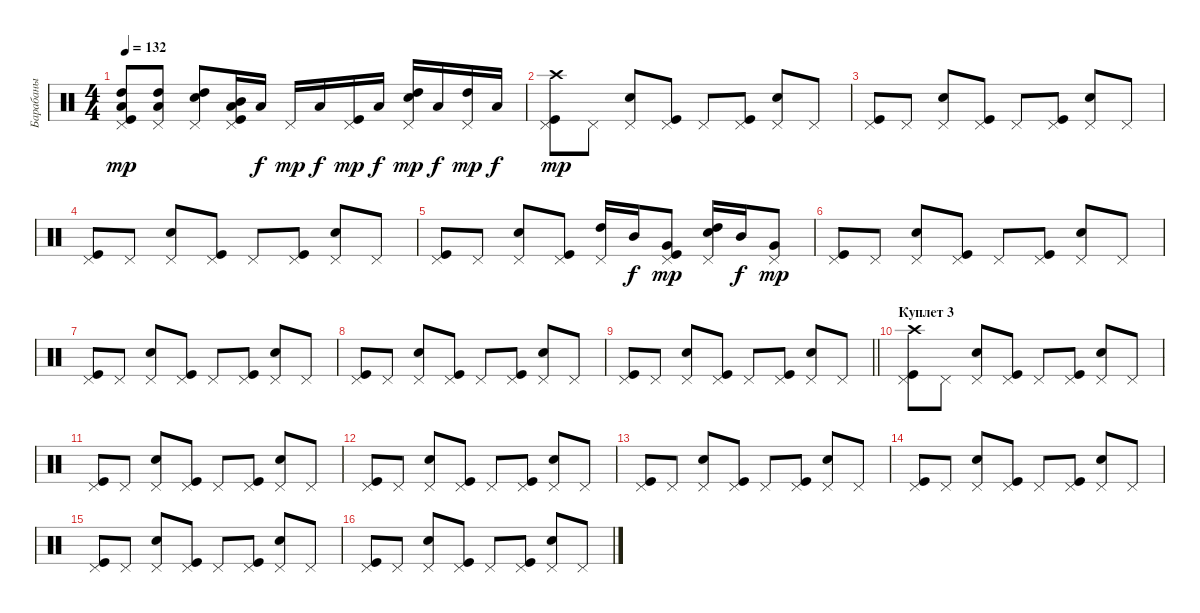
\track ("Барабаны" "Барабаны") {instrument percussion}
\staff {score}
\articulation defaults
\ts (4 4)
\tempo 132
\clef neutral
\ks c
("Kick (hit)" "Pedal Hi-Hat (hit)" "High Tom (hit)" "Low Tom (hit)").8{dy mp} ("Pedal Hi-Hat (hit)" "High Tom (hit)" "Low Tom (hit)").8 ("Snare (hit) 2" "Pedal Hi-Hat (hit)" "High Tom (hit)").8 ("Kick (hit)" "Pedal Hi-Hat (hit)" "Mid Tom (hit)" "Low Tom (hit)").16 "Low Tom (hit)".16{dy f} "Pedal Hi-Hat (hit)".16{dy mp} "Low Tom (hit)".16{dy f} ("Kick (hit)" "Pedal Hi-Hat (hit)").16{dy mp} "Low Tom (hit)".16{dy f} ("Snare (hit) 2" "Pedal Hi-Hat (hit)" "High Tom (hit)").16{dy mp} "Low Tom (hit)".16{dy f} ("Pedal Hi-Hat (hit)" "High Tom (hit)").16{dy mp} "Low Floor Tom (hit)".16{dy f} |
("Kick (hit)" "Pedal Hi-Hat (hit)" "Crash high (hit)").8{dy mp} "Pedal Hi-Hat (hit)".8 ("Snare (hit) 2" "Pedal Hi-Hat (hit)").8 ("Kick (hit)" "Pedal Hi-Hat (hit)").8 "Pedal Hi-Hat (hit)".8 ("Kick (hit)" "Pedal Hi-Hat (hit)").8 ("Snare (hit) 2" "Pedal Hi-Hat (hit)").8 "Pedal Hi-Hat (hit)".8 |
("Kick (hit)" "Pedal Hi-Hat (hit)").8 "Pedal Hi-Hat (hit)".8 ("Snare (hit) 2" "Pedal Hi-Hat (hit)").8 ("Kick (hit)" "Pedal Hi-Hat (hit)").8 "Pedal Hi-Hat (hit)".8 ("Kick (hit)" "Pedal Hi-Hat (hit)").8 ("Snare (hit) 2" "Pedal Hi-Hat (hit)").8 "Pedal Hi-Hat (hit)".8 |
("Kick (hit)" "Pedal Hi-Hat (hit)").8 "Pedal Hi-Hat (hit)".8 ("Snare (hit) 2" "Pedal Hi-Hat (hit)").8 ("Kick (hit)" "Pedal Hi-Hat (hit)").8 "Pedal Hi-Hat (hit)".8 ("Kick (hit)" "Pedal Hi-Hat (hit)").8 ("Snare (hit) 2" "Pedal Hi-Hat (hit)").8 "Pedal Hi-Hat (hit)".8 |
("Kick (hit)" "Pedal Hi-Hat (hit)").8 "Pedal Hi-Hat (hit)".8 ("Snare (hit) 2" "Pedal Hi-Hat (hit)").8 ("Kick (hit)" "Pedal Hi-Hat (hit)").8 ("Pedal Hi-Hat (hit)" "High Tom (hit)").16 "Mid Tom (hit)".16{dy f} ("Kick (hit)" "Pedal Hi-Hat (hit)" "Very Low Tom (hit)").8{dy mp} ("Snare (hit) 2" "Pedal Hi-Hat (hit)" "High Tom (hit)").16 "Mid Tom (hit)".16{dy f} ("Pedal Hi-Hat (hit)" "Very Low Tom (hit)").8{dy mp} |
("Kick (hit)" "Pedal Hi-Hat (hit)").8 "Pedal Hi-Hat (hit)".8 ("Snare (hit) 2" "Pedal Hi-Hat (hit)").8 ("Kick (hit)" "Pedal Hi-Hat (hit)").8 "Pedal Hi-Hat (hit)".8 ("Kick (hit)" "Pedal Hi-Hat (hit)").8 ("Snare (hit) 2" "Pedal Hi-Hat (hit)").8 "Pedal Hi-Hat (hit)".8 |
("Kick (hit)" "Pedal Hi-Hat (hit)").8 "Pedal Hi-Hat (hit)".8 ("Snare (hit) 2" "Pedal Hi-Hat (hit)").8 ("Kick (hit)" "Pedal Hi-Hat (hit)").8 "Pedal Hi-Hat (hit)".8 ("Kick (hit)" "Pedal Hi-Hat (hit)").8 ("Snare (hit) 2" "Pedal Hi-Hat (hit)").8 "Pedal Hi-Hat (hit)".8 |
("Kick (hit)" "Pedal Hi-Hat (hit)").8 "Pedal Hi-Hat (hit)".8 ("Snare (hit) 2" "Pedal Hi-Hat (hit)").8 ("Kick (hit)" "Pedal Hi-Hat (hit)").8 "Pedal Hi-Hat (hit)".8 ("Kick (hit)" "Pedal Hi-Hat (hit)").8 ("Snare (hit) 2" "Pedal Hi-Hat (hit)").8 "Pedal Hi-Hat (hit)".8 |
\barLineRight lightlight
("Kick (hit)" "Pedal Hi-Hat (hit)").8 "Pedal Hi-Hat (hit)".8 ("Snare (hit) 2" "Pedal Hi-Hat (hit)").8 ("Kick (hit)" "Pedal Hi-Hat (hit)").8 "Pedal Hi-Hat (hit)".8 ("Kick (hit)" "Pedal Hi-Hat (hit)").8 ("Snare (hit) 2" "Pedal Hi-Hat (hit)").8 "Pedal Hi-Hat (hit)".8 |
\section ("" "Куплет 3")
("Kick (hit)" "Pedal Hi-Hat (hit)" "Crash high (hit)").8 "Pedal Hi-Hat (hit)".8 ("Snare (hit) 2" "Pedal Hi-Hat (hit)").8 ("Kick (hit)" "Pedal Hi-Hat (hit)").8 "Pedal Hi-Hat (hit)".8 ("Kick (hit)" "Pedal Hi-Hat (hit)").8 ("Snare (hit) 2" "Pedal Hi-Hat (hit)").8 "Pedal Hi-Hat (hit)".8 |
("Kick (hit)" "Pedal Hi-Hat (hit)").8 "Pedal Hi-Hat (hit)".8 ("Snare (hit) 2" "Pedal Hi-Hat (hit)").8 ("Kick (hit)" "Pedal Hi-Hat (hit)").8 "Pedal Hi-Hat (hit)".8 ("Kick (hit)" "Pedal Hi-Hat (hit)").8 ("Snare (hit) 2" "Pedal Hi-Hat (hit)").8 "Pedal Hi-Hat (hit)".8 |
("Kick (hit)" "Pedal Hi-Hat (hit)").8 "Pedal Hi-Hat (hit)".8 ("Snare (hit) 2" "Pedal Hi-Hat (hit)").8 ("Kick (hit)" "Pedal Hi-Hat (hit)").8 "Pedal Hi-Hat (hit)".8 ("Kick (hit)" "Pedal Hi-Hat (hit)").8 ("Snare (hit) 2" "Pedal Hi-Hat (hit)").8 "Pedal Hi-Hat (hit)".8 |
("Kick (hit)" "Pedal Hi-Hat (hit)").8 "Pedal Hi-Hat (hit)".8 ("Snare (hit) 2" "Pedal Hi-Hat (hit)").8 ("Kick (hit)" "Pedal Hi-Hat (hit)").8 "Pedal Hi-Hat (hit)".8 ("Kick (hit)" "Pedal Hi-Hat (hit)").8 ("Snare (hit) 2" "Pedal Hi-Hat (hit)").8 "Pedal Hi-Hat (hit)".8 |
("Kick (hit)" "Pedal Hi-Hat (hit)").8 "Pedal Hi-Hat (hit)".8 ("Snare (hit) 2" "Pedal Hi-Hat (hit)").8 ("Kick (hit)" "Pedal Hi-Hat (hit)").8 "Pedal Hi-Hat (hit)".8 ("Kick (hit)" "Pedal Hi-Hat (hit)").8 ("Snare (hit) 2" "Pedal Hi-Hat (hit)").8 "Pedal Hi-Hat (hit)".8 |
("Kick (hit)" "Pedal Hi-Hat (hit)").8 "Pedal Hi-Hat (hit)".8 ("Snare (hit) 2" "Pedal Hi-Hat (hit)").8 ("Kick (hit)" "Pedal Hi-Hat (hit)").8 "Pedal Hi-Hat (hit)".8 ("Kick (hit)" "Pedal Hi-Hat (hit)").8 ("Snare (hit) 2" "Pedal Hi-Hat (hit)").8 "Pedal Hi-Hat (hit)".8 |
("Kick (hit)" "Pedal Hi-Hat (hit)").8 "Pedal Hi-Hat (hit)".8 ("Snare (hit) 2" "Pedal Hi-Hat (hit)").8 ("Kick (hit)" "Pedal Hi-Hat (hit)").8 "Pedal Hi-Hat (hit)".8 ("Kick (hit)" "Pedal Hi-Hat (hit)").8 ("Snare (hit) 2" "Pedal Hi-Hat (hit)").8 "Pedal Hi-Hat (hit)".8
